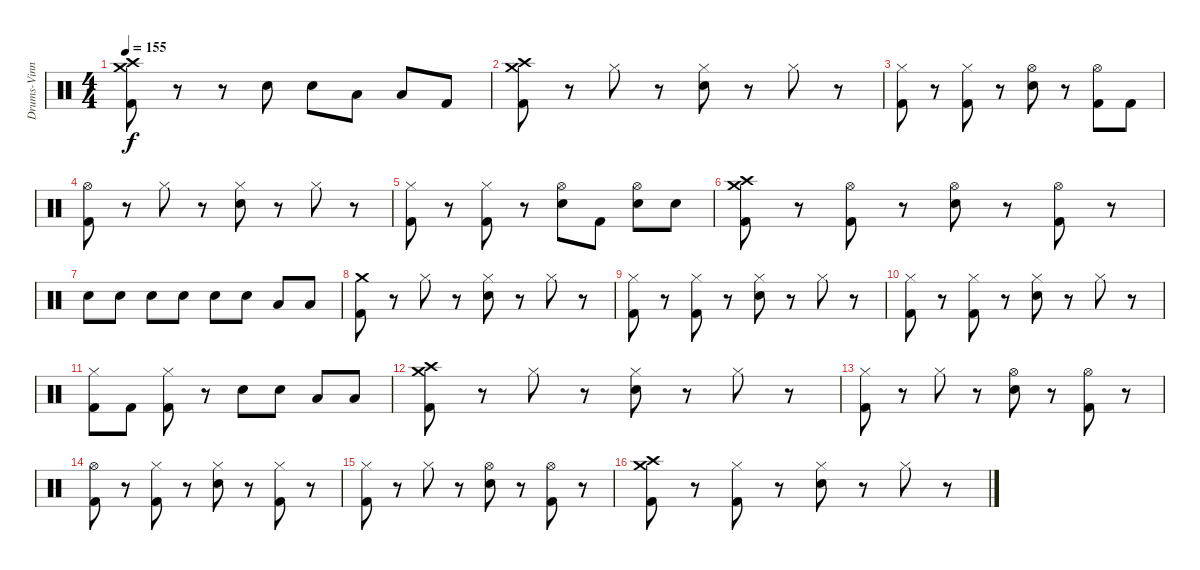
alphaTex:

\track ("Drums-Vinny Appice" "Drums-Vinn") {instrument percussion}
\staff {score}
\articulation defaults
\ts (4 4)
\tempo 155
\clef neutral
\ks c
("Crash medium (hit)" "Crash high (hit)" "Kick (hit) 2").8{dy f} r.8 r.8 "Electric Snare (hit)".8 "Electric Snare (hit)".8 "Low Floor Tom (hit)".8 "Low Floor Tom (hit)".8 "Kick (hit) 2".8 |
("Crash medium (hit)" "Crash high (hit)" "Kick (hit) 2").8 r.8 "Hi-Hat (closed)".8 r.8 ("Hi-Hat (closed)" "Electric Snare (hit)").8 r.8 "Hi-Hat (closed)".8 r.8 |
("Hi-Hat (closed)" "Kick (hit) 2").8 r.8 ("Hi-Hat (closed)" "Kick (hit) 2").8 r.8 ("Hi-Hat (open)" "Electric Snare (hit)").8 r.8 ("Hi-Hat (open)" "Kick (hit) 2").8 "Kick (hit) 2".8 |
("Hi-Hat (open)" "Kick (hit) 2").8 r.8 "Hi-Hat (closed)".8 r.8 ("Hi-Hat (closed)" "Electric Snare (hit)").8 r.8 "Hi-Hat (closed)".8 r.8 |
("Hi-Hat (closed)" "Kick (hit) 2").8 r.8 ("Hi-Hat (closed)" "Kick (hit) 2").8 r.8 ("Hi-Hat (open)" "Electric Snare (hit)").8 "Kick (hit) 2".8 ("Hi-Hat (open)" "Electric Snare (hit)").8 "Electric Snare (hit)".8 |
("Crash medium (hit)" "Crash high (hit)" "Kick (hit) 2").8 r.8 ("Hi-Hat (open)" "Kick (hit) 2").8 r.8 ("Hi-Hat (open)" "Electric Snare (hit)").8 r.8 ("Hi-Hat (open)" "Kick (hit) 2").8 r.8 |
"Electric Snare (hit)".8 "Electric Snare (hit)".8 "Electric Snare (hit)".8 "Electric Snare (hit)".8 "Electric Snare (hit)".8 "Electric Snare (hit)".8 "Low Floor Tom (hit)".8 "Low Floor Tom (hit)".8 |
("Crash medium (hit)" "Kick (hit) 2").8 r.8 "Hi-Hat (closed)".8 r.8 ("Hi-Hat (closed)" "Electric Snare (hit)").8 r.8 "Hi-Hat (closed)".8 r.8 |
("Hi-Hat (closed)" "Kick (hit) 2").8 r.8 ("Hi-Hat (closed)" "Kick (hit) 2").8 r.8 ("Hi-Hat (closed)" "Electric Snare (hit)").8 r.8 "Hi-Hat (closed)".8 r.8 |
("Hi-Hat (closed)" "Kick (hit) 2").8 r.8 ("Hi-Hat (closed)" "Kick (hit) 2").8 r.8 ("Hi-Hat (closed)" "Electric Snare (hit)").8 r.8 "Hi-Hat (closed)".8 r.8 |
("Hi-Hat (closed)" "Kick (hit) 2").8 "Kick (hit) 2".8 ("Hi-Hat (closed)" "Kick (hit) 2").8 r.8 "Electric Snare (hit)".8 "Electric Snare (hit)".8 "Low Floor Tom (hit)".8 "Low Floor Tom (hit)".8 |
("Crash medium (hit)" "Crash high (hit)" "Kick (hit) 2").8 r.8 "Hi-Hat (closed)".8 r.8 ("Hi-Hat (closed)" "Electric Snare (hit)").8 r.8 "Hi-Hat (closed)".8 r.8 |
("Hi-Hat (closed)" "Kick (hit) 2").8 r.8 "Hi-Hat (closed)".8 r.8 ("Hi-Hat (open)" "Electric Snare (hit)").8 r.8 ("Hi-Hat (open)" "Kick (hit) 2").8 r.8 |
("Hi-Hat (open)" "Kick (hit) 2").8 r.8 ("Hi-Hat (closed)" "Kick (hit) 2").8 r.8 ("Hi-Hat (closed)" "Electric Snare (hit)").8 r.8 ("Hi-Hat (closed)" "Kick (hit) 2").8 r.8 |
("Hi-Hat (closed)" "Kick (hit) 2").8 r.8 "Hi-Hat (closed)".8 r.8 ("Hi-Hat (open)" "Electric Snare (hit)").8 r.8 ("Hi-Hat (open)" "Kick (hit) 2").8 r.8 |
("Crash medium (hit)" "Crash high (hit)" "Kick (hit) 2").8 r.8 ("Hi-Hat (closed)" "Kick (hit) 2").8 r.8 ("Hi-Hat (closed)" "Electric Snare (hit)").8 r.8 "Hi-Hat (closed)".8 r.8
